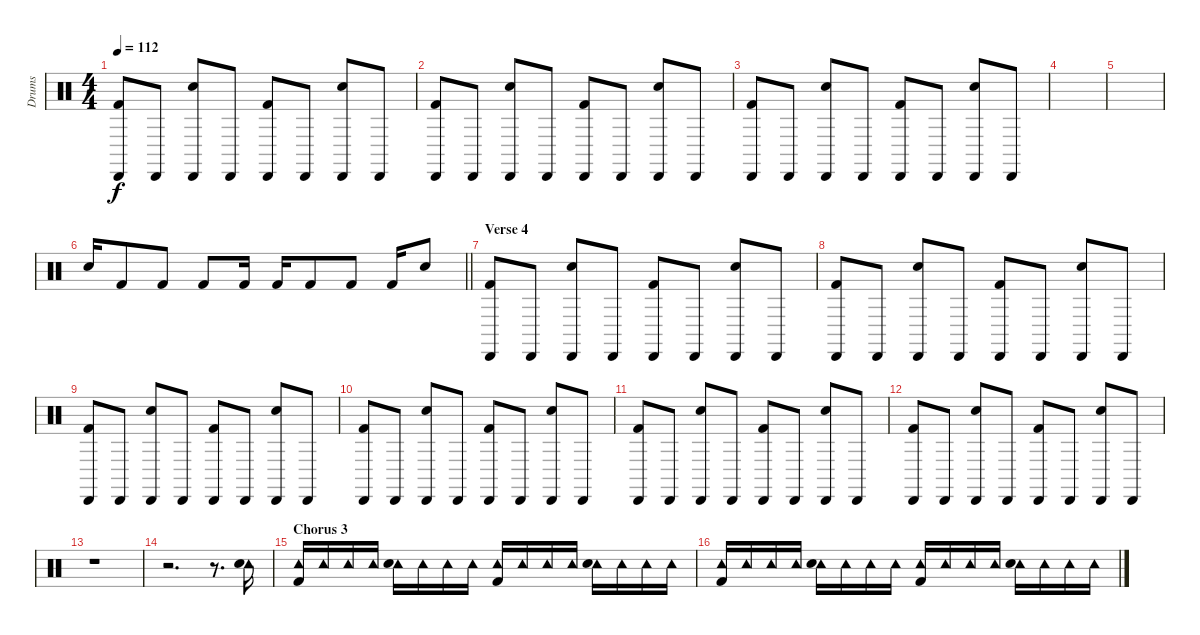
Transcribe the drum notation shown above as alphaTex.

\track ("Drums" "Drums") {instrument percussion}
\staff {score}
\articulation defaults
\ts (4 4)
\tempo 112
\clef neutral
\ks c
("Kick (hit) 2" "Cabasa (hit)").8{dy f} "Cabasa (hit)".8 ("Snare (hit) 2" "Cabasa (hit)").8 "Cabasa (hit)".8 ("Kick (hit) 2" "Cabasa (hit)").8 "Cabasa (hit)".8 ("Snare (hit) 2" "Cabasa (hit)").8 "Cabasa (hit)".8 |
("Kick (hit) 2" "Cabasa (hit)").8 "Cabasa (hit)".8 ("Snare (hit) 2" "Cabasa (hit)").8 "Cabasa (hit)".8 ("Kick (hit) 2" "Cabasa (hit)").8 "Cabasa (hit)".8 ("Snare (hit) 2" "Cabasa (hit)").8 "Cabasa (hit)".8 |
("Kick (hit) 2" "Cabasa (hit)").8 "Cabasa (hit)".8 ("Snare (hit) 2" "Cabasa (hit)").8 "Cabasa (hit)".8 ("Kick (hit) 2" "Cabasa (hit)").8 "Cabasa (hit)".8 ("Snare (hit) 2" "Cabasa (hit)").8 "Cabasa (hit)".8 |
|
|
\barLineRight lightlight "Snare (hit) 2".16 "Kick (hit) 2".8 "Kick (hit) 2".8 "Kick (hit) 2".8 "Kick (hit) 2".16 "Kick (hit) 2".16 "Kick (hit) 2".8 "Kick (hit) 2".8 "Kick (hit) 2".16 "Snare (hit) 2".8
|
\section ("" "Verse 4")
("Kick (hit) 2" "Cabasa (hit)").8 "Cabasa (hit)".8 ("Snare (hit) 2" "Cabasa (hit)").8 "Cabasa (hit)".8 ("Kick (hit) 2" "Cabasa (hit)").8 "Cabasa (hit)".8 ("Snare (hit) 2" "Cabasa (hit)").8 "Cabasa (hit)".8 |
("Kick (hit) 2" "Cabasa (hit)").8 "Cabasa (hit)".8 ("Snare (hit) 2" "Cabasa (hit)").8 "Cabasa (hit)".8 ("Kick (hit) 2" "Cabasa (hit)").8 "Cabasa (hit)".8 ("Snare (hit) 2" "Cabasa (hit)").8 "Cabasa (hit)".8 |
("Kick (hit) 2" "Cabasa (hit)").8 "Cabasa (hit)".8 ("Snare (hit) 2" "Cabasa (hit)").8 "Cabasa (hit)".8 ("Kick (hit) 2" "Cabasa (hit)").8 "Cabasa (hit)".8 ("Snare (hit) 2" "Cabasa (hit)").8 "Cabasa (hit)".8 |
("Kick (hit) 2" "Cabasa (hit)").8 "Cabasa (hit)".8 ("Snare (hit) 2" "Cabasa (hit)").8 "Cabasa (hit)".8 ("Kick (hit) 2" "Cabasa (hit)").8 "Cabasa (hit)".8 ("Snare (hit) 2" "Cabasa (hit)").8 "Cabasa (hit)".8 |
("Kick (hit) 2" "Cabasa (hit)").8 "Cabasa (hit)".8 ("Snare (hit) 2" "Cabasa (hit)").8 "Cabasa (hit)".8 ("Kick (hit) 2" "Cabasa (hit)").8 "Cabasa (hit)".8 ("Snare (hit) 2" "Cabasa (hit)").8 "Cabasa (hit)".8 |
("Kick (hit) 2" "Cabasa (hit)").8 "Cabasa (hit)".8 ("Snare (hit) 2" "Cabasa (hit)").8 "Cabasa (hit)".8 ("Kick (hit) 2" "Cabasa (hit)").8 "Cabasa (hit)".8 ("Snare (hit) 2" "Cabasa (hit)").8 "Cabasa (hit)".8 |
r.1 |
r.2{d} r.8{d} ("Tambourine (hit)" "Snare (hit) 2").16 |
\section ("" "Chorus 3")
("Tambourine (hit)" "Kick (hit) 2").16 "Tambourine (hit)".16 "Tambourine (hit)".16 "Tambourine (hit)".16 ("Tambourine (hit)" "Snare (hit) 2").16 "Tambourine (hit)".16 "Tambourine (hit)".16 "Tambourine (hit)".16 ("Tambourine (hit)" "Kick (hit) 2").16 "Tambourine (hit)".16 "Tambourine (hit)".16 "Tambourine (hit)".16 ("Tambourine (hit)" "Snare (hit) 2").16 "Tambourine (hit)".16 "Tambourine (hit)".16 "Tambourine (hit)".16 |
("Tambourine (hit)" "Kick (hit) 2").16 "Tambourine (hit)".16 "Tambourine (hit)".16 "Tambourine (hit)".16 ("Tambourine (hit)" "Snare (hit) 2").16 "Tambourine (hit)".16 "Tambourine (hit)".16 "Tambourine (hit)".16 ("Tambourine (hit)" "Kick (hit) 2").16 "Tambourine (hit)".16 "Tambourine (hit)".16 "Tambourine (hit)".16 ("Tambourine (hit)" "Snare (hit) 2").16 "Tambourine (hit)".16 "Tambourine (hit)".16 "Tambourine (hit)".16
